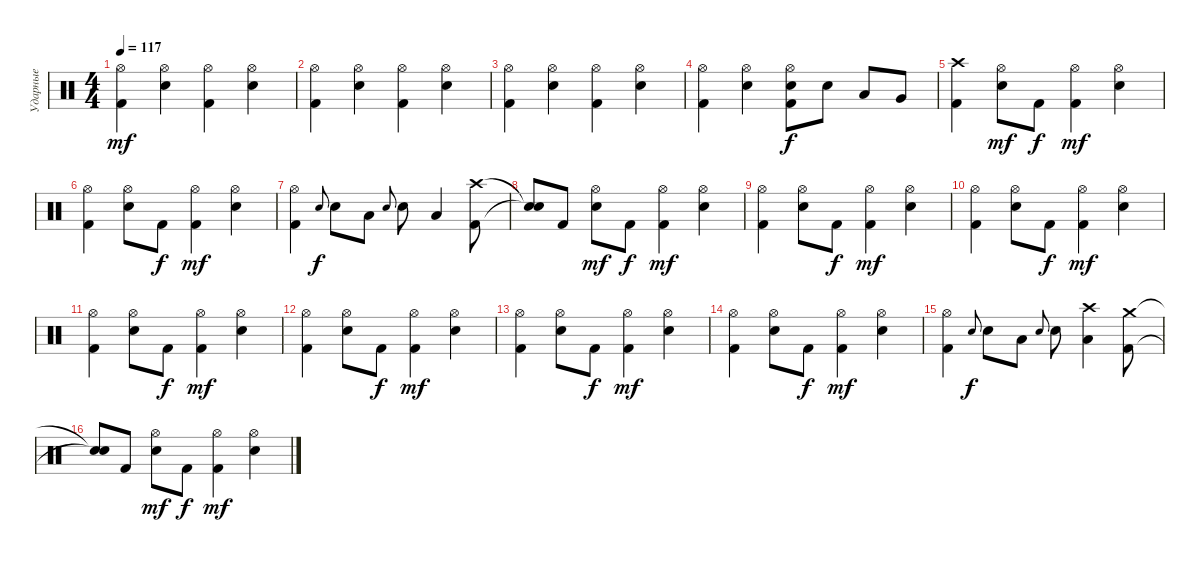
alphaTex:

\track ("Ударные" "Ударные") {instrument percussion}
\staff {score}
\articulation defaults
\ts (4 4)
\tempo 117
\clef neutral
\ks c
("Hi-Hat (open)" "Kick (hit) 2").4{dy mf} ("Hi-Hat (open)" "Electric Snare (hit)").4 ("Hi-Hat (open)" "Kick (hit) 2").4 ("Hi-Hat (open)" "Electric Snare (hit)").4 |
("Hi-Hat (open)" "Kick (hit) 2").4 ("Hi-Hat (open)" "Electric Snare (hit)").4 ("Hi-Hat (open)" "Kick (hit) 2").4 ("Hi-Hat (open)" "Electric Snare (hit)").4 |
("Hi-Hat (open)" "Kick (hit) 2").4 ("Hi-Hat (open)" "Electric Snare (hit)").4 ("Hi-Hat (open)" "Kick (hit) 2").4 ("Hi-Hat (open)" "Electric Snare (hit)").4 |
("Hi-Hat (open)" "Kick (hit) 2").4 ("Hi-Hat (open)" "Electric Snare (hit)").4 ("Hi-Hat (open)" "Electric Snare (hit)" "Kick (hit) 2").8{dy f} "Electric Snare (hit)".8 "Low Tom (hit)".8 "Very Low Tom (hit)".8 |
("Crash high (hit)" "Kick (hit) 2").4 ("Hi-Hat (open)" "Electric Snare (hit)").8{dy mf} "Kick (hit) 2".8{dy f} ("Hi-Hat (open)" "Kick (hit) 2").4{dy mf} ("Hi-Hat (open)" "Electric Snare (hit)").4 |
("Hi-Hat (open)" "Kick (hit) 2").4 ("Hi-Hat (open)" "Electric Snare (hit)").8 "Kick (hit) 2".8{dy f} ("Hi-Hat (open)" "Kick (hit) 2").4{dy mf} ("Hi-Hat (open)" "Electric Snare (hit)").4 |
("Hi-Hat (open)" "Kick (hit) 2").4 "Electric Snare (hit)".8{gr onbeat dy f} "Electric Snare (hit)".8 "Low Tom (hit)".8 "Electric Snare (hit)".8{gr onbeat} "Electric Snare (hit)".8 "Low Tom (hit)".4 ("Crash high (hit)" "Kick (hit) 2").8 |
("Snare (hit)"{t} "Snare (hit)"{t}).8 "Kick (hit) 2".8 ("Hi-Hat (open)" "Electric Snare (hit)").8{dy mf} "Kick (hit) 2".8{dy f} ("Hi-Hat (open)" "Kick (hit) 2").4{dy mf} ("Hi-Hat (open)" "Electric Snare (hit)").4 |
("Hi-Hat (open)" "Kick (hit) 2").4 ("Hi-Hat (open)" "Electric Snare (hit)").8 "Kick (hit) 2".8{dy f} ("Hi-Hat (open)" "Kick (hit) 2").4{dy mf} ("Hi-Hat (open)" "Electric Snare (hit)").4 |
("Hi-Hat (open)" "Kick (hit) 2").4 ("Hi-Hat (open)" "Electric Snare (hit)").8 "Kick (hit) 2".8{dy f} ("Hi-Hat (open)" "Kick (hit) 2").4{dy mf} ("Hi-Hat (open)" "Electric Snare (hit)").4 |
("Hi-Hat (open)" "Kick (hit) 2").4 ("Hi-Hat (open)" "Electric Snare (hit)").8 "Kick (hit) 2".8{dy f} ("Hi-Hat (open)" "Kick (hit) 2").4{dy mf} ("Hi-Hat (open)" "Electric Snare (hit)").4 |
("Hi-Hat (open)" "Kick (hit) 2").4 ("Hi-Hat (open)" "Electric Snare (hit)").8 "Kick (hit) 2".8{dy f} ("Hi-Hat (open)" "Kick (hit) 2").4{dy mf} ("Hi-Hat (open)" "Electric Snare (hit)").4 |
("Hi-Hat (open)" "Kick (hit) 2").4 ("Hi-Hat (open)" "Electric Snare (hit)").8 "Kick (hit) 2".8{dy f} ("Hi-Hat (open)" "Kick (hit) 2").4{dy mf} ("Hi-Hat (open)" "Electric Snare (hit)").4 |
("Hi-Hat (open)" "Kick (hit) 2").4 ("Hi-Hat (open)" "Electric Snare (hit)").8 "Kick (hit) 2".8{dy f} ("Hi-Hat (open)" "Kick (hit) 2").4{dy mf} ("Hi-Hat (open)" "Electric Snare (hit)").4 |
("Hi-Hat (open)" "Kick (hit) 2").4 "Electric Snare (hit)".8{gr onbeat dy f} "Electric Snare (hit)".8 "Low Tom (hit)".8 "Electric Snare (hit)".8{gr onbeat} "Electric Snare (hit)".8 ("Crash high (hit)" "Low Tom (hit)").4 ("Crash medium (hit)" "Kick (hit) 2").8 |
("Snare (hit)"{t} "Snare (hit)"{t}).8 "Kick (hit) 2".8 ("Hi-Hat (open)" "Electric Snare (hit)").8{dy mf} "Kick (hit) 2".8{dy f} ("Hi-Hat (open)" "Kick (hit) 2").4{dy mf} ("Hi-Hat (open)" "Electric Snare (hit)").4
